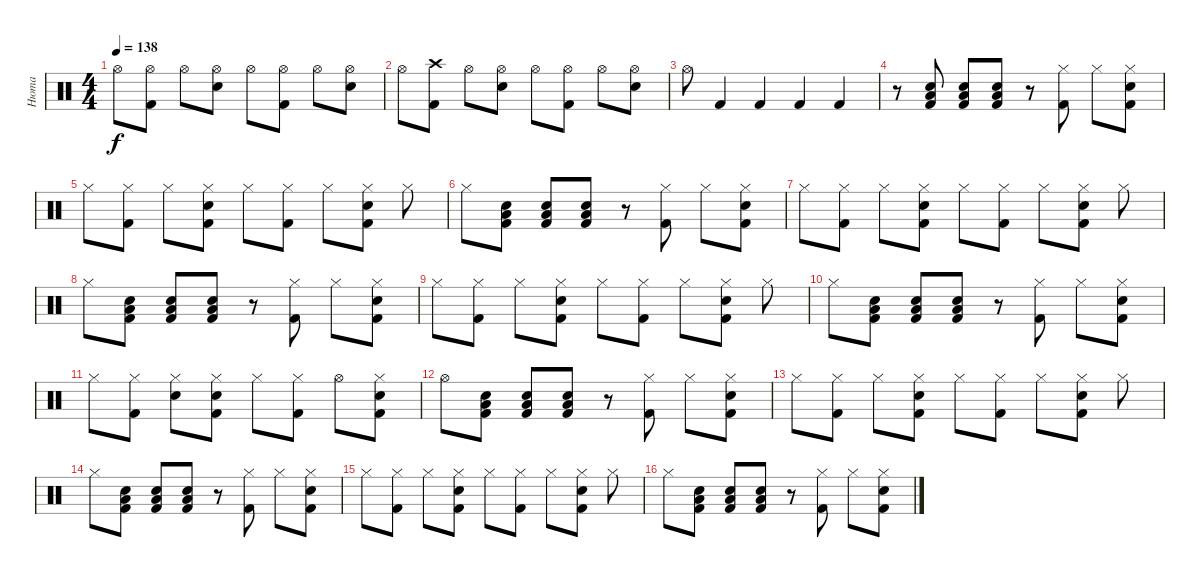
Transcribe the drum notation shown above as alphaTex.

\track ("Нюта" "Нюта") {instrument percussion}
\staff {score}
\articulation defaults
\ts (4 4)
\tempo 138
\clef neutral
\ks c "Hi-Hat (open)".8{dy f}
("Hi-Hat (open)" "Kick (hit) 2").8 "Hi-Hat (open)".8 ("Hi-Hat (open)" "Snare (hit) 2").8 "Hi-Hat (open)".8 ("Hi-Hat (open)" "Kick (hit) 2").8 "Hi-Hat (open)".8 ("Hi-Hat (open)" "Snare (hit) 2").8 |
"Hi-Hat (open)".8 ("Crash high (hit)" "Kick (hit) 2").8 "Hi-Hat (open)".8 ("Hi-Hat (open)" "Snare (hit) 2").8 "Hi-Hat (open)".8 ("Hi-Hat (open)" "Kick (hit) 2").8 "Hi-Hat (open)".8 ("Hi-Hat (open)" "Snare (hit) 2").8 |
"Hi-Hat (open)".8 "Kick (hit) 2".4 "Kick (hit) 2".4 "Kick (hit) 2".4 "Kick (hit) 2".4 |
r.8 ("Kick (hit) 2" "Electric Snare (hit)" "Low Tom (hit)").8 ("Kick (hit) 2" "Electric Snare (hit)" "Low Tom (hit)").8 ("Kick (hit) 2" "Electric Snare (hit)" "Low Tom (hit)").8 r.8 ("Kick (hit) 2" "Hi-Hat (closed)").8 "Hi-Hat (closed)".8 ("Hi-Hat (closed)" "Electric Snare (hit)" "Kick (hit) 2").8 |
"Hi-Hat (closed)".8 ("Kick (hit) 2" "Hi-Hat (closed)").8 "Hi-Hat (closed)".8 ("Hi-Hat (closed)" "Electric Snare (hit)" "Kick (hit) 2").8 "Hi-Hat (closed)".8 ("Kick (hit) 2" "Hi-Hat (closed)").8 "Hi-Hat (closed)".8 ("Hi-Hat (closed)" "Electric Snare (hit)" "Kick (hit) 2").8 "Hi-Hat (closed)".8 |
"Hi-Hat (closed)".8 ("Kick (hit) 2" "Electric Snare (hit)" "Low Tom (hit)").8 ("Kick (hit) 2" "Electric Snare (hit)" "Low Tom (hit)").8 ("Kick (hit) 2" "Electric Snare (hit)" "Low Tom (hit)").8 r.8 ("Kick (hit) 2" "Hi-Hat (closed)").8 "Hi-Hat (closed)".8 ("Hi-Hat (closed)" "Electric Snare (hit)" "Kick (hit) 2").8 |
"Hi-Hat (closed)".8 ("Kick (hit) 2" "Hi-Hat (closed)").8 "Hi-Hat (closed)".8 ("Hi-Hat (closed)" "Electric Snare (hit)" "Kick (hit) 2").8 "Hi-Hat (closed)".8 ("Kick (hit) 2" "Hi-Hat (closed)").8 "Hi-Hat (closed)".8 ("Hi-Hat (closed)" "Electric Snare (hit)" "Kick (hit) 2").8 "Hi-Hat (closed)".8 |
"Hi-Hat (closed)".8 ("Kick (hit) 2" "Electric Snare (hit)" "Low Tom (hit)").8 ("Kick (hit) 2" "Electric Snare (hit)" "Low Tom (hit)").8 ("Kick (hit) 2" "Electric Snare (hit)" "Low Tom (hit)").8 r.8 ("Kick (hit) 2" "Hi-Hat (closed)").8 "Hi-Hat (closed)".8 ("Hi-Hat (closed)" "Electric Snare (hit)" "Kick (hit) 2").8 |
"Hi-Hat (closed)".8 ("Kick (hit) 2" "Hi-Hat (closed)").8 "Hi-Hat (closed)".8 ("Hi-Hat (closed)" "Electric Snare (hit)" "Kick (hit) 2").8 "Hi-Hat (closed)".8 ("Kick (hit) 2" "Hi-Hat (closed)").8 "Hi-Hat (closed)".8 ("Hi-Hat (closed)" "Electric Snare (hit)" "Kick (hit) 2").8 "Hi-Hat (closed)".8 |
"Hi-Hat (closed)".8 ("Kick (hit) 2" "Electric Snare (hit)" "Low Tom (hit)").8 ("Kick (hit) 2" "Electric Snare (hit)" "Low Tom (hit)").8 ("Kick (hit) 2" "Electric Snare (hit)" "Low Tom (hit)").8 r.8 ("Kick (hit) 2" "Hi-Hat (closed)").8 "Hi-Hat (closed)".8 ("Hi-Hat (closed)" "Electric Snare (hit)" "Kick (hit) 2").8 |
"Hi-Hat (closed)".8 ("Kick (hit) 2" "Hi-Hat (closed)").8 ("Snare (hit)" "Hi-Hat (closed)").8 ("Hi-Hat (closed)" "Electric Snare (hit)" "Kick (hit) 2").8 "Hi-Hat (closed)".8 ("Kick (hit) 2" "Hi-Hat (closed)").8 "Hi-Hat (open)".8 ("Hi-Hat (closed)" "Electric Snare (hit)" "Kick (hit) 2").8 |
"Hi-Hat (open)".8 ("Kick (hit) 2" "Electric Snare (hit)" "Low Tom (hit)").8 ("Kick (hit) 2" "Electric Snare (hit)" "Low Tom (hit)").8 ("Kick (hit) 2" "Electric Snare (hit)" "Low Tom (hit)").8 r.8 ("Kick (hit) 2" "Hi-Hat (closed)").8 "Hi-Hat (closed)".8 ("Hi-Hat (closed)" "Electric Snare (hit)" "Kick (hit) 2").8 |
"Hi-Hat (closed)".8 ("Kick (hit) 2" "Hi-Hat (closed)").8 "Hi-Hat (closed)".8 ("Hi-Hat (closed)" "Electric Snare (hit)" "Kick (hit) 2").8 "Hi-Hat (closed)".8 ("Kick (hit) 2" "Hi-Hat (closed)").8 "Hi-Hat (closed)".8 ("Hi-Hat (closed)" "Electric Snare (hit)" "Kick (hit) 2").8 "Hi-Hat (closed)".8 |
"Hi-Hat (closed)".8 ("Kick (hit) 2" "Electric Snare (hit)" "Low Tom (hit)").8 ("Kick (hit) 2" "Electric Snare (hit)" "Low Tom (hit)").8 ("Kick (hit) 2" "Electric Snare (hit)" "Low Tom (hit)").8 r.8 ("Kick (hit) 2" "Hi-Hat (closed)").8 "Hi-Hat (closed)".8 ("Hi-Hat (closed)" "Electric Snare (hit)" "Kick (hit) 2").8 |
"Hi-Hat (closed)".8 ("Kick (hit) 2" "Hi-Hat (closed)").8 "Hi-Hat (closed)".8 ("Hi-Hat (closed)" "Electric Snare (hit)" "Kick (hit) 2").8 "Hi-Hat (closed)".8 ("Kick (hit) 2" "Hi-Hat (closed)").8 "Hi-Hat (closed)".8 ("Hi-Hat (closed)" "Electric Snare (hit)" "Kick (hit) 2").8 "Hi-Hat (closed)".8 |
"Hi-Hat (closed)".8 ("Kick (hit) 2" "Electric Snare (hit)" "Low Tom (hit)").8 ("Kick (hit) 2" "Electric Snare (hit)" "Low Tom (hit)").8 ("Kick (hit) 2" "Electric Snare (hit)" "Low Tom (hit)").8 r.8 ("Kick (hit) 2" "Hi-Hat (closed)").8 "Hi-Hat (closed)".8 ("Hi-Hat (closed)" "Electric Snare (hit)" "Kick (hit) 2").8
